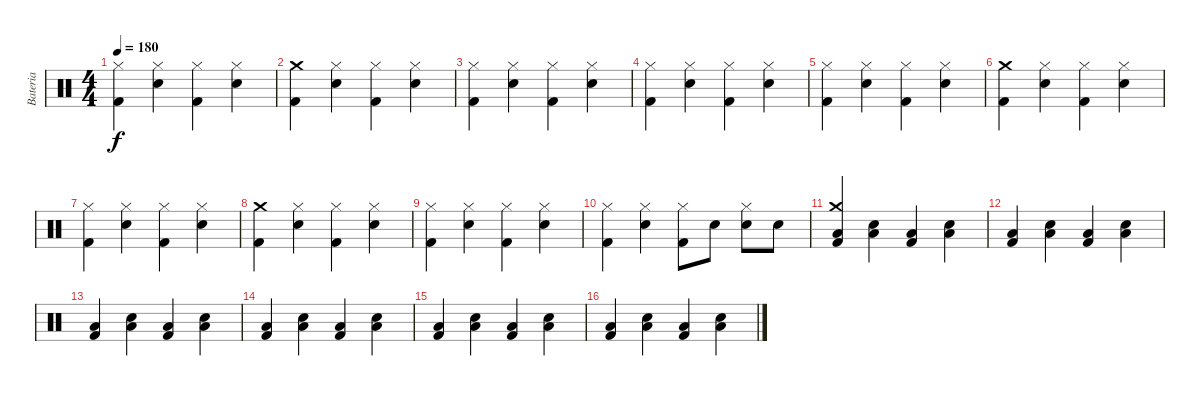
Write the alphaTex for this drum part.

\track ("Bateria" "Bateria") {instrument percussion}
\staff {score}
\articulation defaults
\ts (4 4)
\tempo 180
\clef neutral
\ks c
("Hi-Hat (closed)" "Kick (hit) 2").4{dy f} ("Hi-Hat (closed)" "Electric Snare (hit)").4 ("Hi-Hat (closed)" "Kick (hit) 2").4 ("Hi-Hat (closed)" "Electric Snare (hit)").4 |
("Crash medium (hit)" "Kick (hit) 2").4 ("Hi-Hat (closed)" "Electric Snare (hit)").4 ("Hi-Hat (closed)" "Kick (hit) 2").4 ("Hi-Hat (closed)" "Electric Snare (hit)").4 |
("Hi-Hat (closed)" "Kick (hit) 2").4 ("Hi-Hat (closed)" "Electric Snare (hit)").4 ("Hi-Hat (closed)" "Kick (hit) 2").4 ("Hi-Hat (closed)" "Electric Snare (hit)").4 |
("Hi-Hat (closed)" "Kick (hit) 2").4 ("Hi-Hat (closed)" "Electric Snare (hit)").4 ("Hi-Hat (closed)" "Kick (hit) 2").4 ("Hi-Hat (closed)" "Electric Snare (hit)").4 |
("Hi-Hat (closed)" "Kick (hit) 2").4 ("Hi-Hat (closed)" "Electric Snare (hit)").4 ("Hi-Hat (closed)" "Kick (hit) 2").4 ("Hi-Hat (closed)" "Electric Snare (hit)").4 |
("Crash medium (hit)" "Kick (hit) 2").4 ("Hi-Hat (closed)" "Electric Snare (hit)").4 ("Hi-Hat (closed)" "Kick (hit) 2").4 ("Hi-Hat (closed)" "Electric Snare (hit)").4 |
("Hi-Hat (closed)" "Kick (hit) 2").4 ("Hi-Hat (closed)" "Electric Snare (hit)").4 ("Hi-Hat (closed)" "Kick (hit) 2").4 ("Hi-Hat (closed)" "Electric Snare (hit)").4 |
("Crash medium (hit)" "Kick (hit) 2").4 ("Hi-Hat (closed)" "Electric Snare (hit)").4 ("Hi-Hat (closed)" "Kick (hit) 2").4 ("Hi-Hat (closed)" "Electric Snare (hit)").4 |
("Hi-Hat (closed)" "Kick (hit) 2").4 ("Hi-Hat (closed)" "Electric Snare (hit)").4 ("Hi-Hat (closed)" "Kick (hit) 2").4 ("Hi-Hat (closed)" "Electric Snare (hit)").4 |
("Hi-Hat (closed)" "Kick (hit) 2").4 ("Hi-Hat (closed)" "Electric Snare (hit)").4 ("Hi-Hat (closed)" "Kick (hit) 2").8 "Electric Snare (hit)".8 ("Hi-Hat (closed)" "Electric Snare (hit)").8 "Electric Snare (hit)".8 |
("Low Tom (hit)" "Crash medium (hit)" "Kick (hit) 2").4 ("Low Tom (hit)" "Electric Snare (hit)").4 ("Low Tom (hit)" "Kick (hit) 2").4 ("Low Tom (hit)" "Electric Snare (hit)").4 |
("Low Tom (hit)" "Kick (hit) 2").4 ("Low Tom (hit)" "Electric Snare (hit)").4 ("Low Tom (hit)" "Kick (hit) 2").4 ("Low Tom (hit)" "Electric Snare (hit)").4 |
("Low Tom (hit)" "Kick (hit) 2").4 ("Low Tom (hit)" "Electric Snare (hit)").4 ("Low Tom (hit)" "Kick (hit) 2").4 ("Low Tom (hit)" "Electric Snare (hit)").4 |
("Low Tom (hit)" "Kick (hit) 2").4 ("Low Tom (hit)" "Electric Snare (hit)").4 ("Low Tom (hit)" "Kick (hit) 2").4 ("Low Tom (hit)" "Electric Snare (hit)").4 |
("Low Tom (hit)" "Kick (hit) 2").4 ("Low Tom (hit)" "Electric Snare (hit)").4 ("Low Tom (hit)" "Kick (hit) 2").4 ("Low Tom (hit)" "Electric Snare (hit)").4 |
("Low Tom (hit)" "Kick (hit) 2").4 ("Low Tom (hit)" "Electric Snare (hit)").4 ("Low Tom (hit)" "Kick (hit) 2").4 ("Low Tom (hit)" "Electric Snare (hit)").4
